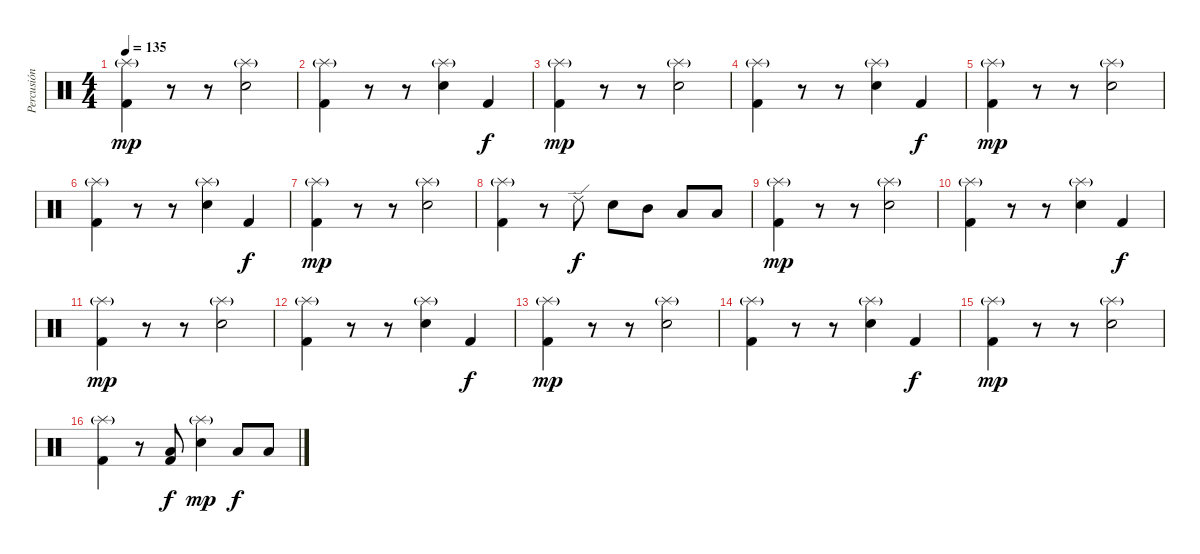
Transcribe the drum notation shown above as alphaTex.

\track ("Percusión" "Percusión") {instrument percussion}
\staff {score}
\articulation defaults
\ts (4 4)
\tempo 135
\clef neutral
\ks c
("Kick (hit) 2" "Splash (hit)"{g}).4{dy mp} r.8 r.8 ("Snare (hit) 2" "Splash (hit)"{g}).2 |
("Kick (hit) 2" "Splash (hit)"{g}).4 r.8 r.8 ("Snare (hit) 2" "Splash (hit)"{g}).4 "Kick (hit) 2".4{dy f} |
("Kick (hit) 2" "Splash (hit)"{g}).4{dy mp} r.8 r.8 ("Snare (hit) 2" "Splash (hit)"{g}).2 |
("Kick (hit) 2" "Splash (hit)"{g}).4 r.8 r.8 ("Snare (hit) 2" "Splash (hit)"{g}).4 "Kick (hit) 2".4{dy f} |
("Kick (hit) 2" "Splash (hit)"{g}).4{dy mp} r.8 r.8 ("Snare (hit) 2" "Splash (hit)"{g}).2 |
("Kick (hit) 2" "Splash (hit)"{g}).4 r.8 r.8 ("Snare (hit) 2" "Splash (hit)"{g}).4 "Kick (hit) 2".4{dy f} |
("Kick (hit) 2" "Splash (hit)"{g}).4{dy mp} r.8 r.8 ("Snare (hit) 2" "Splash (hit)"{g}).2 |
("Kick (hit) 2" "Splash (hit)"{g}).4 r.8 "Ride (edge) 2".8{dy f} "Snare (hit) 2".8 "Mid Tom (hit)".8 "Low Tom (hit)".8 "Low Tom (hit)".8 |
("Kick (hit) 2" "Splash (hit)"{g}).4{dy mp} r.8 r.8 ("Snare (hit) 2" "Splash (hit)"{g}).2 |
("Kick (hit) 2" "Splash (hit)"{g}).4 r.8 r.8 ("Snare (hit) 2" "Splash (hit)"{g}).4 "Kick (hit) 2".4{dy f} |
("Kick (hit) 2" "Splash (hit)"{g}).4{dy mp} r.8 r.8 ("Snare (hit) 2" "Splash (hit)"{g}).2 |
("Kick (hit) 2" "Splash (hit)"{g}).4 r.8 r.8 ("Snare (hit) 2" "Splash (hit)"{g}).4 "Kick (hit) 2".4{dy f} |
("Kick (hit) 2" "Splash (hit)"{g}).4{dy mp} r.8 r.8 ("Snare (hit) 2" "Splash (hit)"{g}).2 |
("Kick (hit) 2" "Splash (hit)"{g}).4 r.8 r.8 ("Snare (hit) 2" "Splash (hit)"{g}).4 "Kick (hit) 2".4{dy f} |
("Kick (hit) 2" "Splash (hit)"{g}).4{dy mp} r.8 r.8 ("Snare (hit) 2" "Splash (hit)"{g}).2 |
("Kick (hit) 2" "Splash (hit)"{g}).4 r.8 ("Kick (hit) 2" "Low Tom (hit)").8{dy f} ("Snare (hit) 2" "Splash (hit)"{g}).4{dy mp} "Low Tom (hit)".8{dy f} "Low Tom (hit)".8
